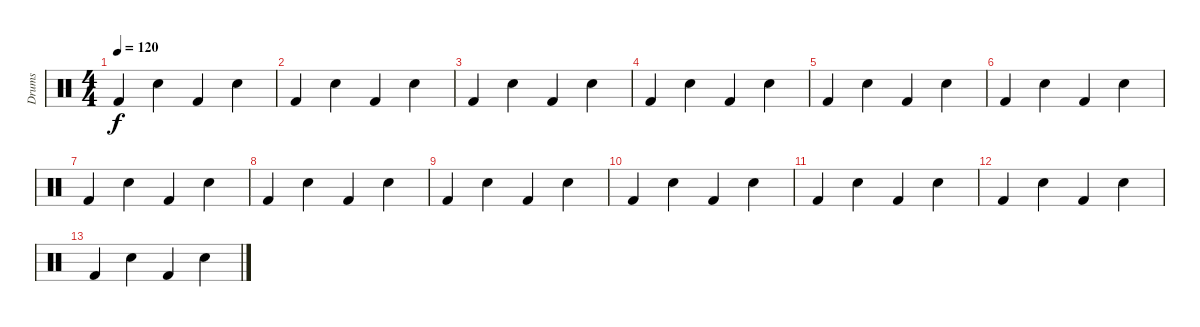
\track ("Drums" "Drums") {instrument percussion}
\staff {score}
\articulation defaults
\ts (4 4)
\tempo 120
\clef neutral
\ks c "Kick (hit) 2".4{dy f} "Electric Snare (hit)".4 "Kick (hit) 2".4 "Electric Snare (hit)".4
|
"Kick (hit) 2".4 "Electric Snare (hit)".4 "Kick (hit) 2".4 "Electric Snare (hit)".4 |
"Kick (hit) 2".4 "Electric Snare (hit)".4 "Kick (hit) 2".4 "Electric Snare (hit)".4 |
"Kick (hit) 2".4 "Electric Snare (hit)".4 "Kick (hit) 2".4 "Electric Snare (hit)".4 |
"Kick (hit) 2".4 "Electric Snare (hit)".4 "Kick (hit) 2".4 "Electric Snare (hit)".4 |
"Kick (hit) 2".4 "Electric Snare (hit)".4 "Kick (hit) 2".4 "Electric Snare (hit)".4 |
"Kick (hit) 2".4 "Electric Snare (hit)".4 "Kick (hit) 2".4 "Electric Snare (hit)".4 |
"Kick (hit) 2".4 "Electric Snare (hit)".4 "Kick (hit) 2".4 "Electric Snare (hit)".4 |
"Kick (hit) 2".4 "Electric Snare (hit)".4 "Kick (hit) 2".4 "Electric Snare (hit)".4 |
"Kick (hit) 2".4 "Electric Snare (hit)".4 "Kick (hit) 2".4 "Electric Snare (hit)".4 |
"Kick (hit) 2".4 "Electric Snare (hit)".4 "Kick (hit) 2".4 "Electric Snare (hit)".4 |
"Kick (hit) 2".4 "Electric Snare (hit)".4 "Kick (hit) 2".4 "Electric Snare (hit)".4 |
"Kick (hit) 2".4 "Electric Snare (hit)".4 "Kick (hit) 2".4 "Electric Snare (hit)".4
